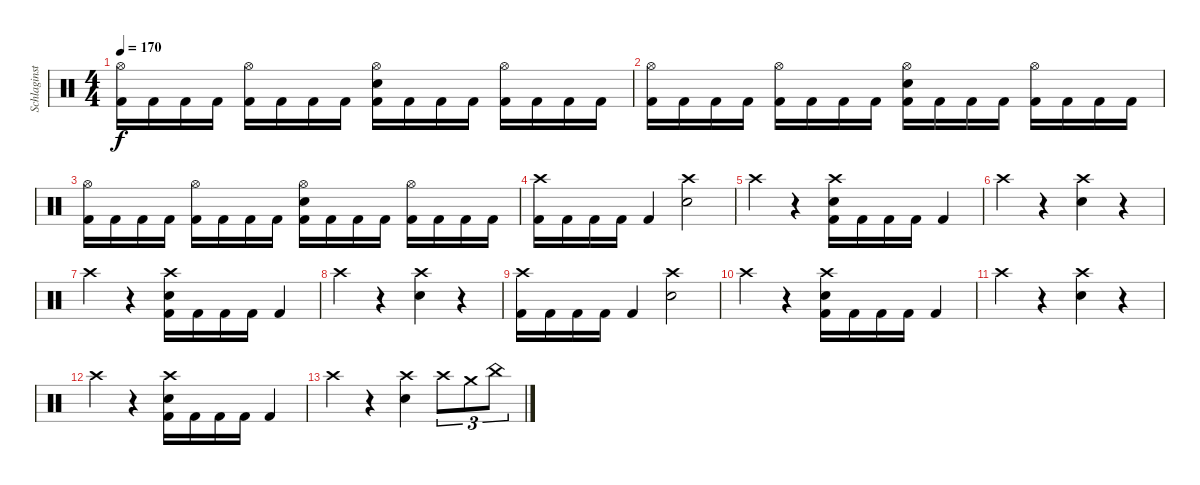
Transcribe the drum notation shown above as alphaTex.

\track ("Schlaginstrumente - Auswahl" "Schlaginst") {instrument percussion}
\staff {score}
\articulation defaults
\ts (4 4)
\tempo 170
\clef neutral
\ks c
("Hi-Hat (open)" "Kick (hit) 2").16{dy f} "Kick (hit) 2".16 "Kick (hit) 2".16 "Kick (hit) 2".16 ("Hi-Hat (open)" "Kick (hit) 2").16 "Kick (hit) 2".16 "Kick (hit) 2".16 "Kick (hit) 2".16 ("Hi-Hat (open)" "Snare (hit) 2" "Kick (hit) 2").16 "Kick (hit) 2".16 "Kick (hit) 2".16 "Kick (hit) 2".16 ("Hi-Hat (open)" "Kick (hit) 2").16 "Kick (hit) 2".16 "Kick (hit) 2".16 "Kick (hit) 2".16 |
("Hi-Hat (open)" "Kick (hit) 2").16 "Kick (hit) 2".16 "Kick (hit) 2".16 "Kick (hit) 2".16 ("Hi-Hat (open)" "Kick (hit) 2").16 "Kick (hit) 2".16 "Kick (hit) 2".16 "Kick (hit) 2".16 ("Hi-Hat (open)" "Snare (hit) 2" "Kick (hit) 2").16 "Kick (hit) 2".16 "Kick (hit) 2".16 "Kick (hit) 2".16 ("Hi-Hat (open)" "Kick (hit) 2").16 "Kick (hit) 2".16 "Kick (hit) 2".16 "Kick (hit) 2".16 |
("Hi-Hat (open)" "Kick (hit) 2").16 "Kick (hit) 2".16 "Kick (hit) 2".16 "Kick (hit) 2".16 ("Hi-Hat (open)" "Kick (hit) 2").16 "Kick (hit) 2".16 "Kick (hit) 2".16 "Kick (hit) 2".16 ("Hi-Hat (open)" "Snare (hit) 2" "Kick (hit) 2").16 "Kick (hit) 2".16 "Kick (hit) 2".16 "Kick (hit) 2".16 ("Hi-Hat (open)" "Kick (hit) 2").16 "Kick (hit) 2".16 "Kick (hit) 2".16 "Kick (hit) 2".16 |
("Crash high (hit)" "Kick (hit) 2").16 "Kick (hit) 2".16 "Kick (hit) 2".16 "Kick (hit) 2".16 "Kick (hit) 2".4 ("Crash high (hit)" "Snare (hit) 2").2 |
"Crash high (hit)".4 r.4 ("Crash high (hit)" "Snare (hit) 2" "Kick (hit) 2").16 "Kick (hit) 2".16 "Kick (hit) 2".16 "Kick (hit) 2".16 "Kick (hit) 2".4 |
"Crash high (hit)".4 r.4 ("Crash high (hit)" "Snare (hit) 2").4 r.4 |
"Crash high (hit)".4 r.4 ("Crash high (hit)" "Snare (hit) 2" "Kick (hit) 2").16 "Kick (hit) 2".16 "Kick (hit) 2".16 "Kick (hit) 2".16 "Kick (hit) 2".4 |
"Crash high (hit)".4 r.4 ("Crash high (hit)" "Snare (hit) 2").4 r.4 |
("Crash high (hit)" "Kick (hit) 2").16 "Kick (hit) 2".16 "Kick (hit) 2".16 "Kick (hit) 2".16 "Kick (hit) 2".4 ("Crash high (hit)" "Snare (hit) 2").2 |
"Crash high (hit)".4 r.4 ("Crash high (hit)" "Snare (hit) 2" "Kick (hit) 2").16 "Kick (hit) 2".16 "Kick (hit) 2".16 "Kick (hit) 2".16 "Kick (hit) 2".4 |
"Crash high (hit)".4 r.4 ("Crash high (hit)" "Snare (hit) 2").4 r.4 |
"Crash high (hit)".4 r.4 ("Crash high (hit)" "Snare (hit) 2" "Kick (hit) 2").16 "Kick (hit) 2".16 "Kick (hit) 2".16 "Kick (hit) 2".16 "Kick (hit) 2".4 |
"Crash high (hit)".4 r.4 ("Crash high (hit)" "Snare (hit) 2").4 "Crash high (hit)".8{tu (3 2)} "Crash medium (hit)".8{tu (3 2)} "China (hit)".8{tu (3 2)}
